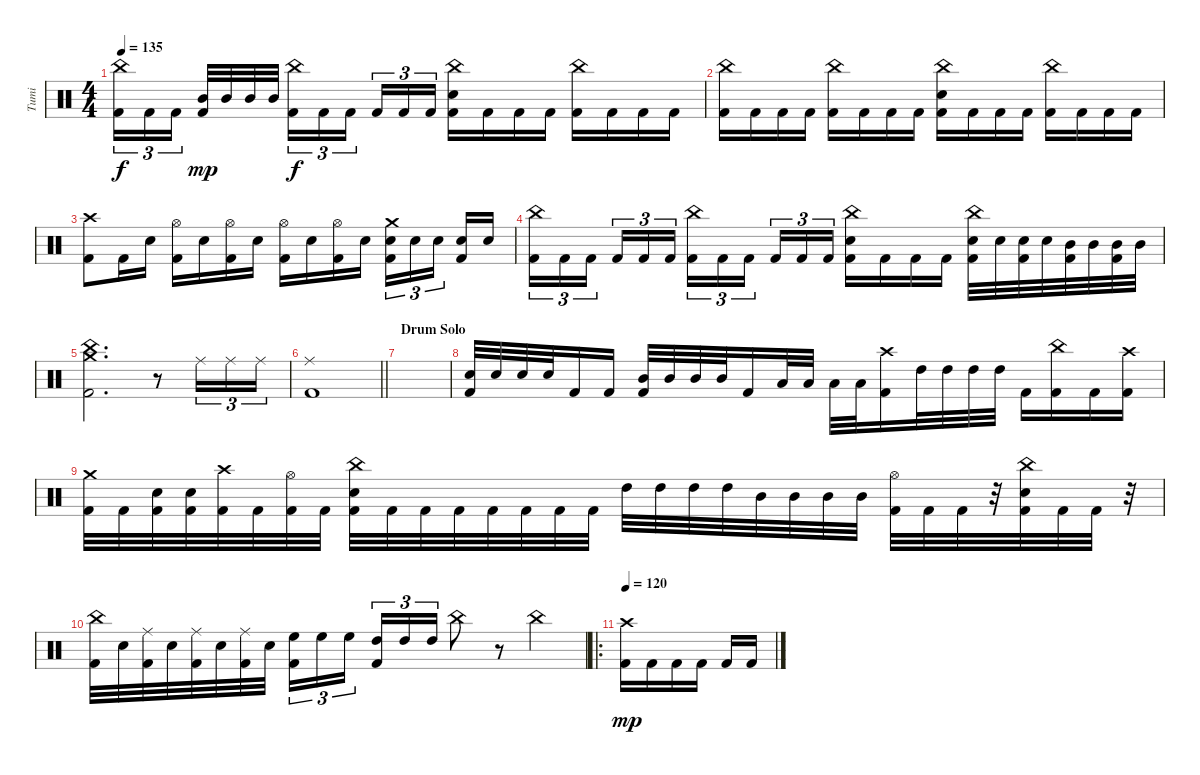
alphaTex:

\track ("Tumi" "Tumi") {instrument percussion}
\staff {score}
\articulation defaults
\ts (4 4)
\tempo 135
\clef neutral
\ks c
("China (hit)" "Kick (hit) 2").16{tu (3 2) dy f} "Kick (hit) 2".16{tu (3 2)} "Kick (hit) 2".16{tu (3 2) beam splitsecondary} ("Mid Tom (hit)" "Kick (hit) 2").32{dy mp} "Mid Tom (hit)".32 "Mid Tom (hit)".32 "Mid Tom (hit)".32 ("China (hit)" "Kick (hit) 2").16{tu (3 2) dy f} "Kick (hit) 2".16{tu (3 2)} "Kick (hit) 2".16{tu (3 2) beam splitsecondary} "Kick (hit) 2".16{tu (3 2)} "Kick (hit) 2".16{tu (3 2)} "Kick (hit) 2".16{tu (3 2)} ("China (hit)" "Electric Snare (hit)" "Kick (hit) 2").16 "Kick (hit) 2".16 "Kick (hit) 2".16 "Kick (hit) 2".16 ("China (hit)" "Kick (hit) 2").16 "Kick (hit) 2".16 "Kick (hit) 2".16 "Kick (hit) 2".16 |
("China (hit)" "Kick (hit) 2").16 "Kick (hit) 2".16 "Kick (hit) 2".16 "Kick (hit) 2".16 ("China (hit)" "Kick (hit) 2").16 "Kick (hit) 2".16 "Kick (hit) 2".16 "Kick (hit) 2".16 ("China (hit)" "Electric Snare (hit)" "Kick (hit) 2").16 "Kick (hit) 2".16 "Kick (hit) 2".16 "Kick (hit) 2".16 ("China (hit)" "Kick (hit) 2").16 "Kick (hit) 2".16 "Kick (hit) 2".16 "Kick (hit) 2".16 |
("Crash high (hit)" "Kick (hit) 2").8 "Kick (hit) 2".16 "Electric Snare (hit)".16 ("Hi-Hat (open)" "Kick (hit) 2").16 "Electric Snare (hit)".16 ("Hi-Hat (open)" "Kick (hit) 2").16 "Electric Snare (hit)".16 ("Hi-Hat (open)" "Kick (hit) 2").16 "Electric Snare (hit)".16 ("Hi-Hat (open)" "Kick (hit) 2").16 "Electric Snare (hit)".16 ("Crash medium (hit)" "Electric Snare (hit)" "Kick (hit) 2").16{tu (3 2)} "Electric Snare (hit)".16{tu (3 2)} "Electric Snare (hit)".16{tu (3 2) beam splitsecondary} ("Electric Snare (hit)" "Kick (hit) 2").16 "Electric Snare (hit)".16 |
("China (hit)" "Kick (hit) 2").16{tu (3 2)} "Kick (hit) 2".16{tu (3 2)} "Kick (hit) 2".16{tu (3 2) beam splitsecondary} "Kick (hit) 2".16{tu (3 2)} "Kick (hit) 2".16{tu (3 2)} "Kick (hit) 2".16{tu (3 2)} ("China (hit)" "Kick (hit) 2").16{tu (3 2)} "Kick (hit) 2".16{tu (3 2)} "Kick (hit) 2".16{tu (3 2) beam splitsecondary} "Kick (hit) 2".16{tu (3 2)} "Kick (hit) 2".16{tu (3 2)} "Kick (hit) 2".16{tu (3 2)} ("China (hit)" "Electric Snare (hit)" "Kick (hit) 2").16 "Kick (hit) 2".16 "Kick (hit) 2".16 "Kick (hit) 2".16 ("China (hit)" "Electric Snare (hit)" "Kick (hit) 2").32 "Electric Snare (hit)".32 ("Electric Snare (hit)" "Kick (hit) 2").32 "Electric Snare (hit)".32 ("Mid Tom (hit)" "Kick (hit) 2").32 "Mid Tom (hit)".32 ("Mid Tom (hit)" "Kick (hit) 2").32 "Mid Tom (hit)".32 |
("Crash medium (hit)" "China (hit)" "Kick (hit) 2").2{d} r.8 "Ride (middle)".16{tu (3 2)} "Ride (middle)".16{tu (3 2)} "Ride (middle)".16{tu (3 2)} |
\barLineRight lightlight
("Ride (middle)" "Kick (hit) 2").1 |
\section ("" "Drum Solo")
|
("Electric Snare (hit)" "Kick (hit) 2").32 "Electric Snare (hit)".32 "Electric Snare (hit)".32 "Electric Snare (hit)".32 "Kick (hit) 2".16 "Kick (hit) 2".16 ("Mid Tom (hit)" "Kick (hit) 2").32 "Mid Tom (hit)".32 "Mid Tom (hit)".32 "Mid Tom (hit)".32 "Kick (hit) 2".16 "Low Tom (hit)".32 "Low Tom (hit)".32 "Low Tom (hit)".32 "Low Tom (hit)".32 ("Crash high (hit)" "Kick (hit) 2").16 "High Tom (hit)".32 "High Tom (hit)".32 "High Tom (hit)".32 "High Tom (hit)".32 "Kick (hit) 2".16 ("China (hit)" "Kick (hit) 2").16 "Kick (hit) 2".16 ("Crash high (hit)" "Kick (hit) 2").16 |
("Crash medium (hit)" "Kick (hit) 2").32 "Kick (hit) 2".32 ("Electric Snare (hit)" "Kick (hit) 2").32 ("Electric Snare (hit)" "Kick (hit) 2").32 ("Crash high (hit)" "Kick (hit) 2").32 "Kick (hit) 2".32 ("Hi-Hat (open)" "Kick (hit) 2").32 "Kick (hit) 2".32 ("China (hit)" "Electric Snare (hit)" "Kick (hit) 2").32 "Kick (hit) 2".32 "Kick (hit) 2".32 "Kick (hit) 2".32 "Kick (hit) 2".32 "Kick (hit) 2".32 "Kick (hit) 2".32 "Kick (hit) 2".32 "High Tom (hit)".32 "High Tom (hit)".32 "High Tom (hit)".32 "High Tom (hit)".32 "Mid Tom (hit)".32 "Mid Tom (hit)".32 "Mid Tom (hit)".32 "Mid Tom (hit)".32 ("Hi-Hat (open)" "Kick (hit) 2").32 "Kick (hit) 2".32 "Kick (hit) 2".32 r.32 ("China (hit)" "Electric Snare (hit)" "Kick (hit) 2").32 "Kick (hit) 2".32 "Kick (hit) 2".32 r.32 |
("China (hit)" "Kick (hit) 2").32 "Electric Snare (hit)".32 ("Ride (middle)" "Kick (hit) 2").32 "Electric Snare (hit)".32 ("Ride (middle)" "Kick (hit) 2").32 "Electric Snare (hit)".32 ("Ride (middle)" "Kick (hit) 2").32 "Electric Snare (hit)".32 ("High Floor Tom (hit)" "Kick (hit) 2").16{tu (3 2)} "High Floor Tom (hit)".16{tu (3 2)} "High Floor Tom (hit)".16{tu (3 2) beam splitsecondary} ("High Tom (hit)" "Kick (hit) 2").16{tu (3 2)} "High Tom (hit)".16{tu (3 2)} "High Tom (hit)".16{tu (3 2)} "China (hit)".8 r.8 "China (hit)".4 |
\ro
\tempo 120
("Crash high (hit)" "Kick (hit) 2").16{dy mp} "Kick (hit) 2".16 "Kick (hit) 2".16 "Kick (hit) 2".16 "Kick (hit) 2".16 "Kick (hit) 2".16
